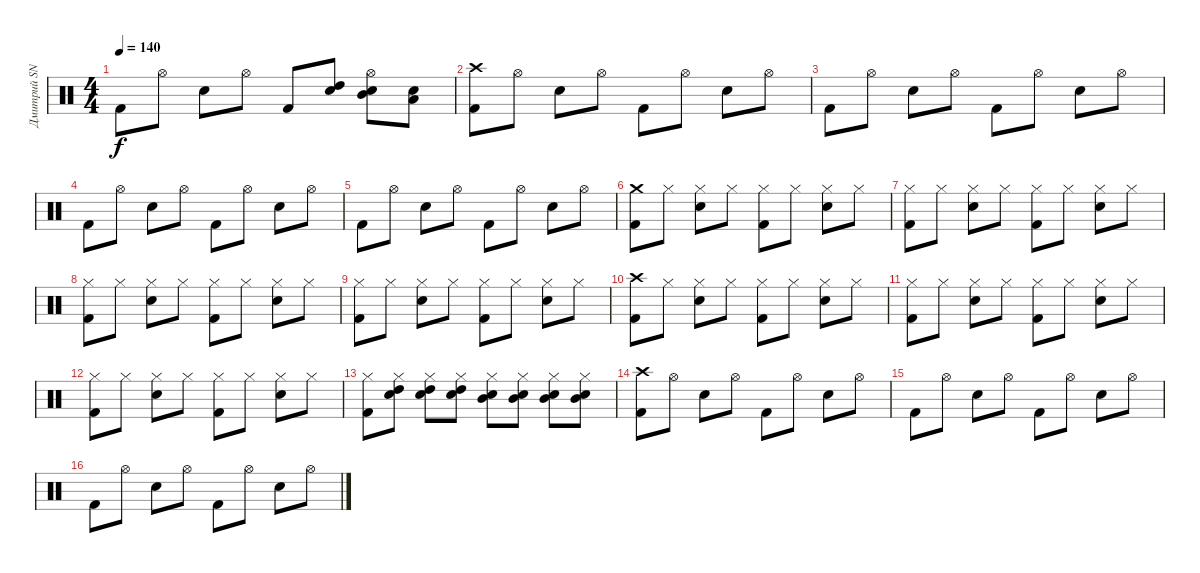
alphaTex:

\track ("Дмитрий SNAKE Хакимов" "Дмитрий SN") {instrument percussion}
\staff {score}
\articulation defaults
\ts (4 4)
\tempo 140
\clef neutral
\ks c "Kick (hit) 2".8{dy f} "Hi-Hat (open)".8 "Electric Snare (hit)".8 "Hi-Hat (open)".8 "Kick (hit) 2".8
("High Tom (hit)" "Electric Snare (hit)").8 ("Hi-Hat (open)" "Mid Tom (hit)" "Electric Snare (hit)").8 ("Low Tom (hit)" "Electric Snare (hit)").8 |
("Crash high (hit)" "Kick (hit) 2").8 "Hi-Hat (open)".8 "Electric Snare (hit)".8 "Hi-Hat (open)".8 "Kick (hit) 2".8 "Hi-Hat (open)".8 "Electric Snare (hit)".8 "Hi-Hat (open)".8 |
"Kick (hit) 2".8 "Hi-Hat (open)".8 "Electric Snare (hit)".8 "Hi-Hat (open)".8 "Kick (hit) 2".8 "Hi-Hat (open)".8 "Electric Snare (hit)".8 "Hi-Hat (open)".8 |
"Kick (hit) 2".8 "Hi-Hat (open)".8 "Electric Snare (hit)".8 "Hi-Hat (open)".8 "Kick (hit) 2".8 "Hi-Hat (open)".8 "Electric Snare (hit)".8 "Hi-Hat (open)".8 |
"Kick (hit) 2".8 "Hi-Hat (open)".8 "Electric Snare (hit)".8 "Hi-Hat (open)".8 "Kick (hit) 2".8 "Hi-Hat (open)".8 "Electric Snare (hit)".8 "Hi-Hat (open)".8 |
("Crash medium (hit)" "Kick (hit) 2").8 "Hi-Hat (closed)".8 ("Hi-Hat (closed)" "Electric Snare (hit)").8 "Hi-Hat (closed)".8 ("Hi-Hat (closed)" "Kick (hit) 2").8 "Hi-Hat (closed)".8 ("Hi-Hat (closed)" "Electric Snare (hit)").8 "Hi-Hat (closed)".8 |
("Hi-Hat (closed)" "Kick (hit) 2").8 "Hi-Hat (closed)".8 ("Hi-Hat (closed)" "Electric Snare (hit)").8 "Hi-Hat (closed)".8 ("Hi-Hat (closed)" "Kick (hit) 2").8 "Hi-Hat (closed)".8 ("Hi-Hat (closed)" "Electric Snare (hit)").8 "Hi-Hat (closed)".8 |
("Hi-Hat (closed)" "Kick (hit) 2").8 "Hi-Hat (closed)".8 ("Hi-Hat (closed)" "Electric Snare (hit)").8 "Hi-Hat (closed)".8 ("Hi-Hat (closed)" "Kick (hit) 2").8 "Hi-Hat (closed)".8 ("Hi-Hat (closed)" "Electric Snare (hit)").8 "Hi-Hat (closed)".8 |
("Hi-Hat (closed)" "Kick (hit) 2").8 "Hi-Hat (closed)".8 ("Hi-Hat (closed)" "Electric Snare (hit)").8 "Hi-Hat (closed)".8 ("Hi-Hat (closed)" "Kick (hit) 2").8 "Hi-Hat (closed)".8 ("Hi-Hat (closed)" "Electric Snare (hit)").8 "Hi-Hat (closed)".8 |
("Crash high (hit)" "Kick (hit) 2").8 "Hi-Hat (closed)".8 ("Hi-Hat (closed)" "Electric Snare (hit)").8 "Hi-Hat (closed)".8 ("Hi-Hat (closed)" "Kick (hit) 2").8 "Hi-Hat (closed)".8 ("Hi-Hat (closed)" "Electric Snare (hit)").8 "Hi-Hat (closed)".8 |
("Hi-Hat (closed)" "Kick (hit) 2").8 "Hi-Hat (closed)".8 ("Hi-Hat (closed)" "Electric Snare (hit)").8 "Hi-Hat (closed)".8 ("Hi-Hat (closed)" "Kick (hit) 2").8 "Hi-Hat (closed)".8 ("Hi-Hat (closed)" "Electric Snare (hit)").8 "Hi-Hat (closed)".8 |
("Hi-Hat (closed)" "Kick (hit) 2").8 "Hi-Hat (closed)".8 ("Hi-Hat (closed)" "Electric Snare (hit)").8 "Hi-Hat (closed)".8 ("Hi-Hat (closed)" "Kick (hit) 2").8 "Hi-Hat (closed)".8 ("Hi-Hat (closed)" "Electric Snare (hit)").8 "Hi-Hat (closed)".8 |
("Hi-Hat (closed)" "Kick (hit) 2").8 ("Hi-Hat (closed)" "High Tom (hit)" "Electric Snare (hit)").8 ("Hi-Hat (closed)" "High Tom (hit)" "Electric Snare (hit)").8 ("Hi-Hat (closed)" "High Tom (hit)" "Electric Snare (hit)").8 ("Hi-Hat (closed)" "Mid Tom (hit)" "Electric Snare (hit)").8 ("Hi-Hat (closed)" "Mid Tom (hit)" "Electric Snare (hit)").8 ("Hi-Hat (closed)" "Mid Tom (hit)" "Electric Snare (hit)").8 ("Hi-Hat (closed)" "Mid Tom (hit)" "Electric Snare (hit)").8 |
("Crash high (hit)" "Kick (hit) 2").8 "Hi-Hat (open)".8 "Electric Snare (hit)".8 "Hi-Hat (open)".8 "Kick (hit) 2".8 "Hi-Hat (open)".8 "Electric Snare (hit)".8 "Hi-Hat (open)".8 |
"Kick (hit) 2".8 "Hi-Hat (open)".8 "Electric Snare (hit)".8 "Hi-Hat (open)".8 "Kick (hit) 2".8 "Hi-Hat (open)".8 "Electric Snare (hit)".8 "Hi-Hat (open)".8 |
"Kick (hit) 2".8 "Hi-Hat (open)".8 "Electric Snare (hit)".8 "Hi-Hat (open)".8 "Kick (hit) 2".8 "Hi-Hat (open)".8 "Electric Snare (hit)".8 "Hi-Hat (open)".8
